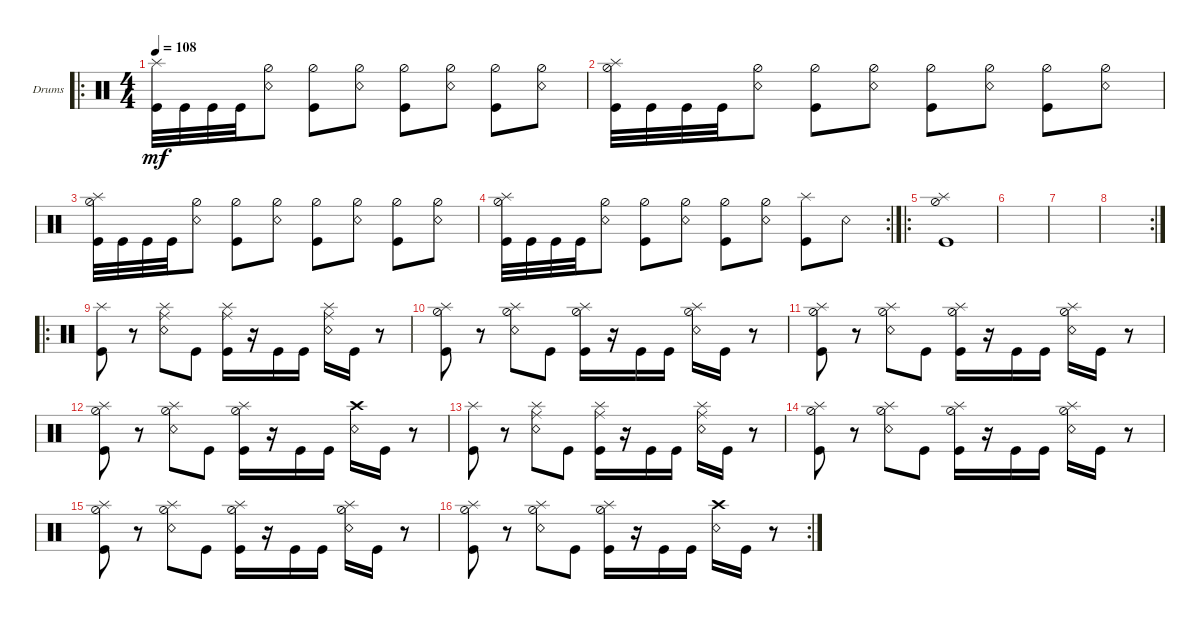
\bracketExtendMode groupsimilarinstruments
\firstSystemTrackNameOrientation horizontal
\otherSystemsTrackNameOrientation horizontal
\track ("Drumkit" "Drums") {instrument percussion}
\staff {score}
\articulation defaults
\ro
\ts (4 4)
\tempo 108
\clef neutral
\scale
0.377778
\ks c
("Kick (hit)" "Splash (hit)").32{dy mf} "Kick (hit)".32 "Kick (hit)".32 "Kick (hit)".32 ("Snare (rim shot)" "Hi-Hat (half)").8 ("Kick (hit)" "Hi-Hat (half)").8 ("Snare (rim shot)" "Hi-Hat (half)").8 ("Kick (hit)" "Hi-Hat (half)").8 ("Snare (rim shot)" "Hi-Hat (half)").8 ("Kick (hit)" "Hi-Hat (half)").8 ("Snare (rim shot)" "Hi-Hat (half)").8 |
\scale
0.311111 ("Kick (hit)" "Hi-Hat (half)" "Splash (hit)").32 "Kick (hit)".32 "Kick (hit)".32 "Kick (hit)".32 ("Snare (rim shot)" "Hi-Hat (half)").8 ("Kick (hit)" "Hi-Hat (half)").8 ("Snare (rim shot)" "Hi-Hat (half)").8 ("Kick (hit)" "Hi-Hat (half)").8 ("Snare (rim shot)" "Hi-Hat (half)").8 ("Kick (hit)" "Hi-Hat (half)").8 ("Snare (rim shot)" "Hi-Hat (half)").8 |
\scale
0.301075 ("Kick (hit)" "Hi-Hat (half)" "Splash (hit)").32 "Kick (hit)".32 "Kick (hit)".32 "Kick (hit)".32 ("Snare (rim shot)" "Hi-Hat (half)").8 ("Kick (hit)" "Hi-Hat (half)").8 ("Snare (rim shot)" "Hi-Hat (half)").8 ("Kick (hit)" "Hi-Hat (half)").8 ("Snare (rim shot)" "Hi-Hat (half)").8 ("Kick (hit)" "Hi-Hat (half)").8 ("Snare (rim shot)" "Hi-Hat (half)").8 |
\rc 2
\scale
0.333333 ("Kick (hit)" "Hi-Hat (half)" "Splash (hit)").32 "Kick (hit)".32 "Kick (hit)".32 "Kick (hit)".32 ("Snare (rim shot)" "Hi-Hat (half)").8 ("Kick (hit)" "Hi-Hat (half)").8 ("Snare (rim shot)" "Hi-Hat (half)").8 ("Kick (hit)" "Hi-Hat (half)").8 ("Snare (rim shot)" "Hi-Hat (half)").8 ("Kick (hit)" "Splash (hit)").8 "Snare (rim shot)".8 |
\ro
\scale
0.365591 ("Splash (hit)" "Hi-Hat (half)" "Kick (hit)").1 |
\scale
0.321839 |
\scale
0.321839 |
\rc 2
\scale
0.356322 |
\ro
\scale
0.377778 ("Kick (hit)" "Splash (hit)").8 r.8 ("Snare (rim shot)" "Ride (middle)" "Splash (hit)").8 "Kick (hit)".8 ("Kick (hit)" "Ride (middle)" "Splash (hit)").16 r.16 "Kick (hit)".16 "Kick (hit)".16 ("Snare (rim shot)" "Ride (middle)" "Splash (hit)").16 "Kick (hit)".16 r.8 |
\scale
0.311111 ("Kick (hit)" "Hi-Hat (half)" "Splash (hit)").8 r.8 ("Snare (rim shot)" "Hi-Hat (half)" "Splash (hit)").8 "Kick (hit)".8 ("Kick (hit)" "Hi-Hat (half)" "Splash (hit)").16 r.16 "Kick (hit)".16 "Kick (hit)".16 ("Snare (rim shot)" "Hi-Hat (half)" "Splash (hit)").16 "Kick (hit)".16 r.8 |
\scale
0.311111 ("Kick (hit)" "Hi-Hat (half)" "Splash (hit)").8 r.8 ("Snare (rim shot)" "Hi-Hat (half)" "Splash (hit)").8 "Kick (hit)".8 ("Kick (hit)" "Hi-Hat (half)" "Splash (hit)").16 r.16 "Kick (hit)".16 "Kick (hit)".16 ("Snare (rim shot)" "Hi-Hat (half)" "Splash (hit)").16 "Kick (hit)".16 r.8 |
\scale
0.333333 ("Kick (hit)" "Hi-Hat (half)" "Splash (hit)").8 r.8 ("Snare (rim shot)" "Hi-Hat (half)" "Splash (hit)").8 "Kick (hit)".8 ("Kick (hit)" "Hi-Hat (half)" "Splash (hit)").16 r.16 "Kick (hit)".16 "Kick (hit)".16 ("Snare (rim shot)" "Crash high (hit)").16 "Kick (hit)".16 r.8 |
\scale
0.333333 ("Kick (hit)" "Splash (hit)").8 r.8 ("Snare (rim shot)" "Ride (middle)" "Splash (hit)").8 "Kick (hit)".8 ("Kick (hit)" "Ride (middle)" "Splash (hit)").16 r.16 "Kick (hit)".16 "Kick (hit)".16 ("Snare (rim shot)" "Ride (middle)" "Splash (hit)").16 "Kick (hit)".16 r.8 |
\scale
0.333333 ("Kick (hit)" "Hi-Hat (half)" "Splash (hit)").8 r.8 ("Snare (rim shot)" "Hi-Hat (half)" "Splash (hit)").8 "Kick (hit)".8 ("Kick (hit)" "Hi-Hat (half)" "Splash (hit)").16 r.16 "Kick (hit)".16 "Kick (hit)".16 ("Snare (rim shot)" "Hi-Hat (half)" "Splash (hit)").16 "Kick (hit)".16 r.8 |
\scale
0.321839 ("Kick (hit)" "Hi-Hat (half)" "Splash (hit)").8 r.8 ("Snare (rim shot)" "Hi-Hat (half)" "Splash (hit)").8 "Kick (hit)".8 ("Kick (hit)" "Hi-Hat (half)" "Splash (hit)").16 r.16 "Kick (hit)".16 "Kick (hit)".16 ("Snare (rim shot)" "Hi-Hat (half)" "Splash (hit)").16 "Kick (hit)".16 r.8 |
\rc 2
\scale
0.356322 ("Kick (hit)" "Hi-Hat (half)" "Splash (hit)").8 r.8 ("Snare (rim shot)" "Hi-Hat (half)" "Splash (hit)").8 "Kick (hit)".8 ("Kick (hit)" "Hi-Hat (half)" "Splash (hit)").16 r.16 "Kick (hit)".16 "Kick (hit)".16 ("Snare (rim shot)" "Crash high (hit)").16 "Kick (hit)".16 r.8
